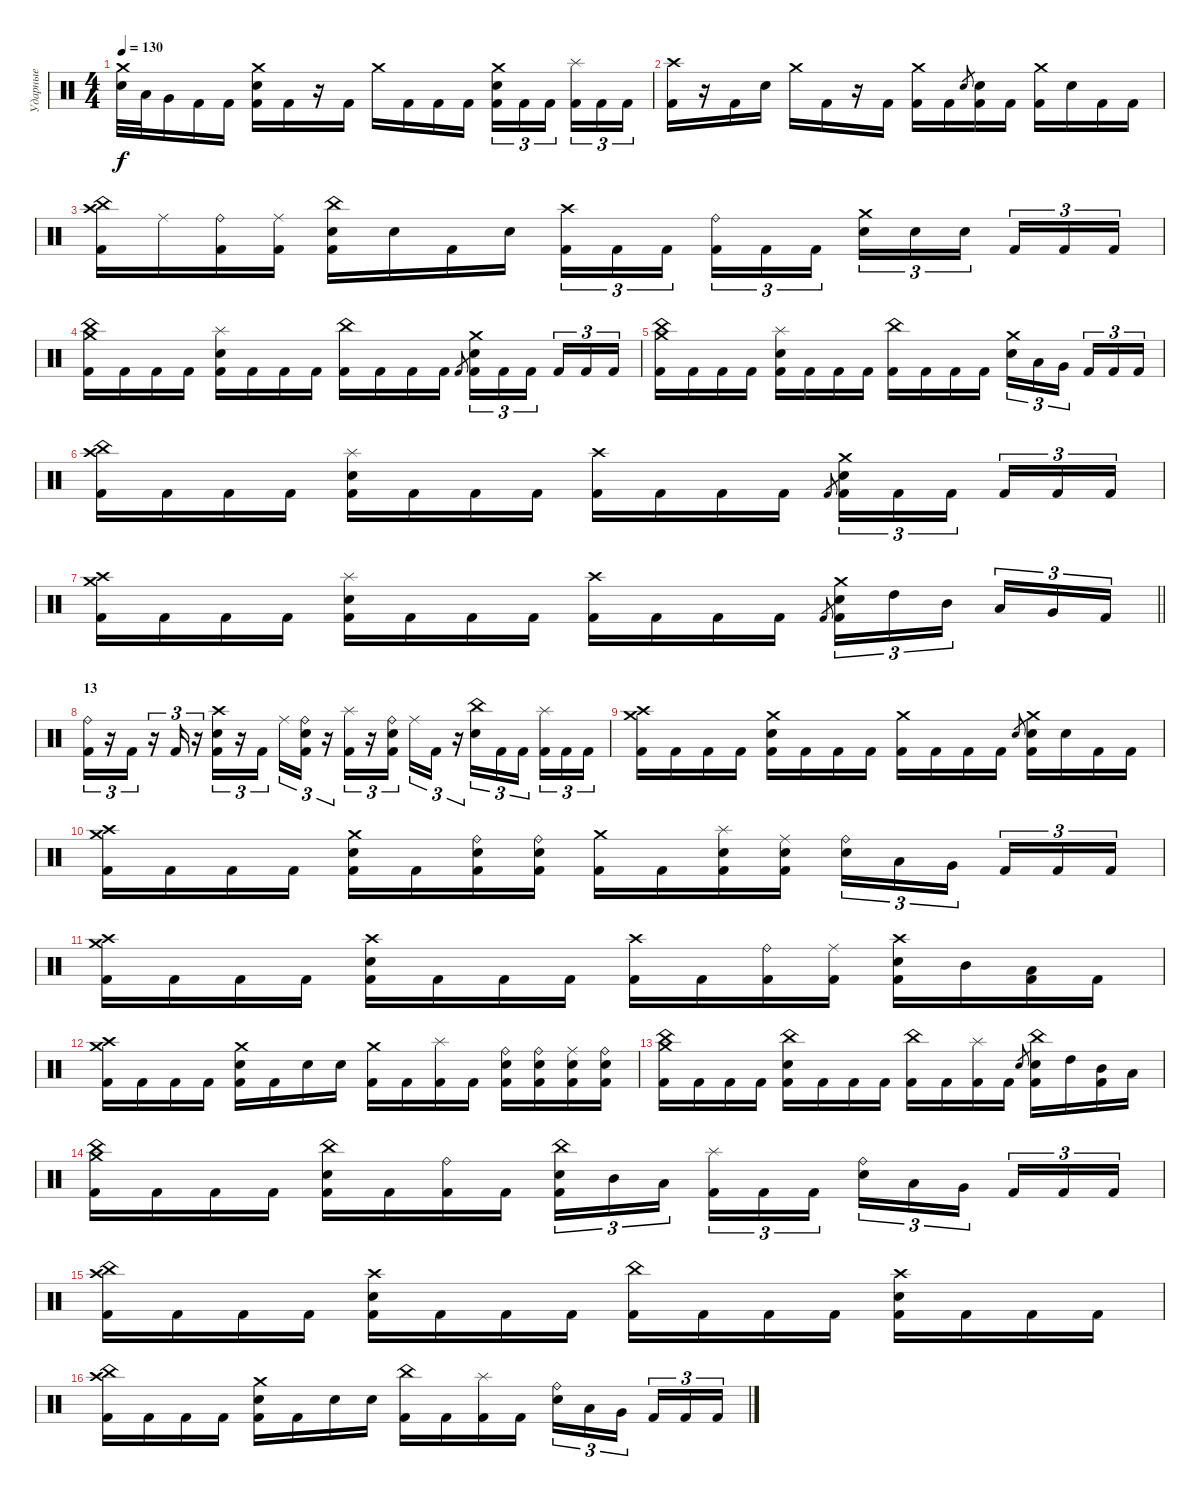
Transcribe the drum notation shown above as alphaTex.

\track ("Ударные" "Ударные") {instrument percussion}
\staff {score}
\articulation defaults
\ts (4 4)
\tempo 130
\clef neutral
\ks c
("Crash medium (hit)" "Electric Snare (hit)").32{dy f} "Low Tom (hit)".32 "Very Low Tom (hit)".16 "Kick (hit) 2".16 "Kick (hit) 2".16 ("Crash medium (hit)" "Electric Snare (hit)" "Kick (hit) 2").16 "Kick (hit) 2".16 r.16 "Kick (hit) 2".16 "Crash medium (hit)".16 "Kick (hit) 2".16 "Kick (hit) 2".16 "Kick (hit) 2".16 ("Crash medium (hit)" "Electric Snare (hit)" "Kick (hit) 2").16{tu (3 2)} "Kick (hit) 2".16{tu (3 2)} "Kick (hit) 2".16{tu (3 2) beam splitsecondary} ("Splash (hit)" "Kick (hit) 2").16{tu (3 2)} "Kick (hit) 2".16{tu (3 2)} "Kick (hit) 2".16{tu (3 2)} |
("Crash high (hit)" "Kick (hit) 2").16 r.16 "Kick (hit) 2".16 "Electric Snare (hit)".16 "Crash medium (hit)".16 "Kick (hit) 2".16 r.16 "Kick (hit) 2".16 ("Crash medium (hit)" "Kick (hit) 2").16 "Kick (hit) 2".16 "Electric Snare (hit)".8{gr} ("Electric Snare (hit)" "Kick (hit) 2").16 "Kick (hit) 2".16 ("Crash medium (hit)" "Kick (hit) 2").16 "Electric Snare (hit)".16 "Kick (hit) 2".16 "Kick (hit) 2".16 |
("China (hit)" "Crash high (hit)" "Kick (hit) 2").16 "Ride (middle)".16 ("Ride (bell)" "Kick (hit) 2").16 ("Ride (middle)" "Kick (hit) 2").16 ("China (hit)" "Electric Snare (hit)" "Kick (hit) 2").16 "Electric Snare (hit)".16 "Kick (hit) 2".16 "Electric Snare (hit)".16 ("Crash high (hit)" "Kick (hit) 2").16{tu (3 2)} "Kick (hit) 2".16{tu (3 2)} "Kick (hit) 2".16{tu (3 2) beam splitsecondary} ("Ride (bell)" "Kick (hit) 2").16{tu (3 2)} "Kick (hit) 2".16{tu (3 2)} "Kick (hit) 2".16{tu (3 2)} ("Crash medium (hit)" "Electric Snare (hit)").16{tu (3 2)} "Electric Snare (hit)".16{tu (3 2)} "Electric Snare (hit)".16{tu (3 2) beam splitsecondary} "Kick (hit) 2".16{tu (3 2)} "Kick (hit) 2".16{tu (3 2)} "Kick (hit) 2".16{tu (3 2)} |
("China (hit)" "Crash medium (hit)" "Kick (hit) 2").16 "Kick (hit) 2".16 "Kick (hit) 2".16 "Kick (hit) 2".16 ("Splash (hit)" "Electric Snare (hit)" "Kick (hit) 2").16 "Kick (hit) 2".16 "Kick (hit) 2".16 "Kick (hit) 2".16 ("China (hit)" "Kick (hit) 2").16 "Kick (hit) 2".16 "Kick (hit) 2".16 "Kick (hit) 2".16 "Kick (hit) 2".8{gr} ("Crash medium (hit)" "Electric Snare (hit)" "Kick (hit) 2").16{tu (3 2)} "Kick (hit) 2".16{tu (3 2)} "Kick (hit) 2".16{tu (3 2) beam splitsecondary} "Kick (hit) 2".16{tu (3 2)} "Kick (hit) 2".16{tu (3 2)} "Kick (hit) 2".16{tu (3 2)} |
("China (hit)" "Crash medium (hit)" "Kick (hit) 2").16 "Kick (hit) 2".16 "Kick (hit) 2".16 "Kick (hit) 2".16 ("Splash (hit)" "Electric Snare (hit)" "Kick (hit) 2").16 "Kick (hit) 2".16 "Kick (hit) 2".16 "Kick (hit) 2".16 ("China (hit)" "Kick (hit) 2").16 "Kick (hit) 2".16 "Kick (hit) 2".16 "Kick (hit) 2".16 ("Crash medium (hit)" "Electric Snare (hit)").16{tu (3 2)} "Low Tom (hit)".16{tu (3 2)} "Very Low Tom (hit)".16{tu (3 2) beam splitsecondary} "Kick (hit) 2".16{tu (3 2)} "Kick (hit) 2".16{tu (3 2)} "Kick (hit) 2".16{tu (3 2)} |
("China (hit)" "Crash high (hit)" "Kick (hit) 2").16 "Kick (hit) 2".16 "Kick (hit) 2".16 "Kick (hit) 2".16 ("Splash (hit)" "Electric Snare (hit)" "Kick (hit) 2").16 "Kick (hit) 2".16 "Kick (hit) 2".16 "Kick (hit) 2".16 ("Crash high (hit)" "Kick (hit) 2").16 "Kick (hit) 2".16 "Kick (hit) 2".16 "Kick (hit) 2".16 "Kick (hit) 2".8{gr} ("Crash medium (hit)" "Electric Snare (hit)" "Kick (hit) 2").16{tu (3 2)} "Kick (hit) 2".16{tu (3 2)} "Kick (hit) 2".16{tu (3 2) beam splitsecondary} "Kick (hit) 2".16{tu (3 2)} "Kick (hit) 2".16{tu (3 2)} "Kick (hit) 2".16{tu (3 2)} |
\barLineRight lightlight
("Crash high (hit)" "Crash medium (hit)" "Kick (hit) 2").16 "Kick (hit) 2".16 "Kick (hit) 2".16 "Kick (hit) 2".16 ("Splash (hit)" "Electric Snare (hit)" "Kick (hit) 2").16 "Kick (hit) 2".16 "Kick (hit) 2".16 "Kick (hit) 2".16 ("Crash high (hit)" "Kick (hit) 2").16 "Kick (hit) 2".16 "Kick (hit) 2".16 "Kick (hit) 2".16 "Kick (hit) 2".8{gr} ("Crash medium (hit)" "Electric Snare (hit)" "Kick (hit) 2").16{tu (3 2)} "High Tom (hit)".16{tu (3 2)} "Mid Tom (hit)".16{tu (3 2) beam splitsecondary} "Low Tom (hit)".16{tu (3 2)} "Very Low Tom (hit)".16{tu (3 2)} "Kick (hit) 2".16{tu (3 2)} |
\section ("" "13")
("Ride (bell)" "Kick (hit) 2").16{tu (3 2)} r.16{tu (3 2)} "Kick (hit) 2".16{tu (3 2)} r.16{tu (3 2)} "Kick (hit) 2".16{tu (3 2)} r.16{tu (3 2)} ("Crash high (hit)" "Electric Snare (hit)" "Kick (hit) 2").16{tu (3 2)} r.16{tu (3 2)} "Kick (hit) 2".16{tu (3 2) beam splitsecondary} "Ride (middle)".16{tu (3 2)} ("Ride (bell)" "Electric Snare (hit)" "Kick (hit) 2").16{tu (3 2)} r.16{tu (3 2)} ("Splash (hit)" "Kick (hit) 2").16{tu (3 2)} r.16{tu (3 2)} ("Ride (bell)" "Electric Snare (hit)" "Kick (hit) 2").16{tu (3 2) beam splitsecondary} "Ride (middle)".16{tu (3 2)} "Kick (hit) 2".16{tu (3 2)} r.16{tu (3 2)} ("China (hit)" "Electric Snare (hit)").16{tu (3 2)} "Kick (hit) 2".16{tu (3 2)} "Kick (hit) 2".16{tu (3 2) beam splitsecondary} ("Splash (hit)" "Kick (hit) 2").16{tu (3 2)} "Kick (hit) 2".16{tu (3 2)} "Kick (hit) 2".16{tu (3 2)} |
("Crash high (hit)" "Crash medium (hit)" "Kick (hit) 2").16 "Kick (hit) 2".16 "Kick (hit) 2".16 "Kick (hit) 2".16 ("Crash medium (hit)" "Electric Snare (hit)" "Kick (hit) 2").16 "Kick (hit) 2".16 "Kick (hit) 2".16 "Kick (hit) 2".16 ("Crash medium (hit)" "Kick (hit) 2").16 "Kick (hit) 2".16 "Kick (hit) 2".16 "Kick (hit) 2".16 "Electric Snare (hit)".8{gr} ("Crash medium (hit)" "Electric Snare (hit)" "Kick (hit) 2").16 "Electric Snare (hit)".16 "Kick (hit) 2".16 "Kick (hit) 2".16 |
("Crash high (hit)" "Crash medium (hit)" "Kick (hit) 2").16 "Kick (hit) 2".16 "Kick (hit) 2".16 "Kick (hit) 2".16 ("Crash medium (hit)" "Electric Snare (hit)" "Kick (hit) 2").16 "Kick (hit) 2".16 ("Ride (bell)" "Electric Snare (hit)" "Kick (hit) 2").16 ("Ride (bell)" "Electric Snare (hit)" "Kick (hit) 2").16 ("Crash medium (hit)" "Kick (hit) 2").16 "Kick (hit) 2".16 ("Splash (hit)" "Electric Snare (hit)" "Kick (hit) 2").16 ("Ride (middle)" "Electric Snare (hit)" "Kick (hit) 2").16 ("Ride (bell)" "Electric Snare (hit)").16{tu (3 2)} "Low Tom (hit)".16{tu (3 2)} "Very Low Tom (hit)".16{tu (3 2) beam splitsecondary} "Kick (hit) 2".16{tu (3 2)} "Kick (hit) 2".16{tu (3 2)} "Kick (hit) 2".16{tu (3 2)} |
("Crash high (hit)" "Crash medium (hit)" "Kick (hit) 2").16 "Kick (hit) 2".16 "Kick (hit) 2".16 "Kick (hit) 2".16 ("Crash high (hit)" "Electric Snare (hit)" "Kick (hit) 2").16 "Kick (hit) 2".16 "Kick (hit) 2".16 "Kick (hit) 2".16 ("Crash high (hit)" "Kick (hit) 2").16 "Kick (hit) 2".16 ("Ride (bell)" "Kick (hit) 2").16 ("Ride (middle)" "Kick (hit) 2").16 ("Crash high (hit)" "Electric Snare (hit)" "Kick (hit) 2").16 "Mid Tom (hit)".16 ("Low Tom (hit)" "Kick (hit) 2").16 "Kick (hit) 2".16 |
("Crash high (hit)" "Crash medium (hit)" "Kick (hit) 2").16 "Kick (hit) 2".16 "Kick (hit) 2".16 "Kick (hit) 2".16 ("Crash medium (hit)" "Electric Snare (hit)" "Kick (hit) 2").16 "Kick (hit) 2".16 "Electric Snare (hit)".16 "Electric Snare (hit)".16 ("Crash medium (hit)" "Kick (hit) 2").16 "Kick (hit) 2".16 ("Splash (hit)" "Kick (hit) 2").16 "Kick (hit) 2".16 ("Ride (bell)" "Electric Snare (hit)" "Kick (hit) 2").16 ("Ride (bell)" "Electric Snare (hit)" "Kick (hit) 2").16 ("Ride (middle)" "Electric Snare (hit)" "Kick (hit) 2").16 ("Ride (bell)" "Electric Snare (hit)" "Kick (hit) 2").16 |
("China (hit)" "Crash medium (hit)" "Kick (hit) 2").16 "Kick (hit) 2".16 "Kick (hit) 2".16 "Kick (hit) 2".16 ("China (hit)" "Electric Snare (hit)" "Kick (hit) 2").16 "Kick (hit) 2".16 "Kick (hit) 2".16 "Kick (hit) 2".16 ("China (hit)" "Kick (hit) 2").16 "Kick (hit) 2".16 ("Splash (hit)" "Kick (hit) 2").16 "Kick (hit) 2".16 "Electric Snare (hit)".8{gr} ("China (hit)" "Electric Snare (hit)" "Kick (hit) 2").16 "High Tom (hit)".16 ("Mid Tom (hit)" "Kick (hit) 2").16 "Low Tom (hit)".16 |
("China (hit)" "Crash medium (hit)" "Kick (hit) 2").16 "Kick (hit) 2".16 "Kick (hit) 2".16 "Kick (hit) 2".16 ("China (hit)" "Electric Snare (hit)" "Kick (hit) 2").16 "Kick (hit) 2".16 ("Ride (bell)" "Kick (hit) 2").16 "Kick (hit) 2".16 ("China (hit)" "Electric Snare (hit)" "Kick (hit) 2").16{tu (3 2)} "Mid Tom (hit)".16{tu (3 2)} "Low Tom (hit)".16{tu (3 2) beam splitsecondary} ("Splash (hit)" "Kick (hit) 2").16{tu (3 2)} "Kick (hit) 2".16{tu (3 2)} "Kick (hit) 2".16{tu (3 2)} ("Ride (bell)" "Electric Snare (hit)").16{tu (3 2)} "Low Tom (hit)".16{tu (3 2)} "Very Low Tom (hit)".16{tu (3 2) beam splitsecondary} "Kick (hit) 2".16{tu (3 2)} "Kick (hit) 2".16{tu (3 2)} "Kick (hit) 2".16{tu (3 2)} |
("Crash high (hit)" "China (hit)" "Kick (hit) 2").16 "Kick (hit) 2".16 "Kick (hit) 2".16 "Kick (hit) 2".16 ("Crash high (hit)" "Electric Snare (hit)" "Kick (hit) 2").16 "Kick (hit) 2".16 "Kick (hit) 2".16 "Kick (hit) 2".16 ("China (hit)" "Kick (hit) 2").16 "Kick (hit) 2".16 "Kick (hit) 2".16 "Kick (hit) 2".16 ("Crash high (hit)" "Electric Snare (hit)" "Kick (hit) 2").16 "Kick (hit) 2".16 "Kick (hit) 2".16 "Kick (hit) 2".16 |
("Crash high (hit)" "China (hit)" "Kick (hit) 2").16 "Kick (hit) 2".16 "Kick (hit) 2".16 "Kick (hit) 2".16 ("Crash medium (hit)" "Electric Snare (hit)" "Kick (hit) 2").16 "Kick (hit) 2".16 "Electric Snare (hit)".16 "Electric Snare (hit)".16 ("China (hit)" "Kick (hit) 2").16 "Kick (hit) 2".16 ("Splash (hit)" "Kick (hit) 2").16 "Kick (hit) 2".16 ("Ride (bell)" "Electric Snare (hit)").16{tu (3 2)} "Low Tom (hit)".16{tu (3 2)} "Very Low Tom (hit)".16{tu (3 2) beam splitsecondary} "Kick (hit) 2".16{tu (3 2)} "Kick (hit) 2".16{tu (3 2)} "Kick (hit) 2".16{tu (3 2)}
